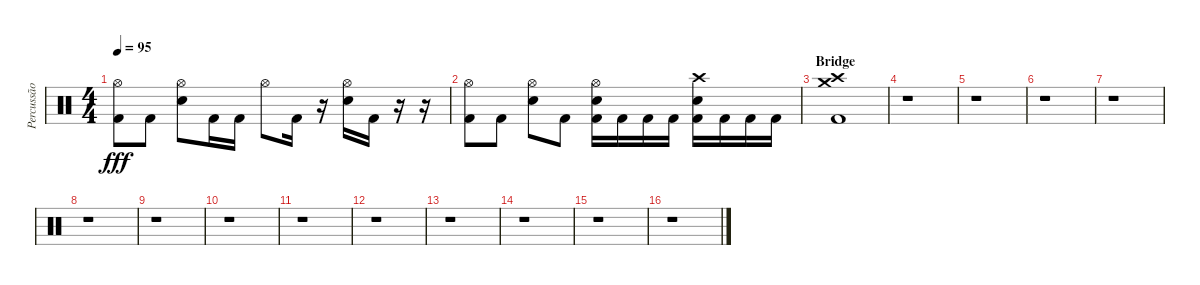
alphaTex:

\track ("Percussão" "Percussão") {instrument percussion}
\staff {score}
\articulation defaults
\ts (4 4)
\tempo 95
\clef neutral
\ks c
("Hi-Hat (open)" "Kick (hit) 2").8{dy fff} "Kick (hit) 2".8 ("Hi-Hat (open)" "Electric Snare (hit)").8 "Kick (hit) 2".16 "Kick (hit) 2".16 "Hi-Hat (open)".8 "Kick (hit) 2".16 r.16 ("Hi-Hat (open)" "Electric Snare (hit)").16 "Kick (hit) 2".16 r.16 r.16 |
("Hi-Hat (open)" "Kick (hit) 2").8 "Kick (hit) 2".8 ("Hi-Hat (open)" "Electric Snare (hit)").8 "Kick (hit) 2".8 ("Hi-Hat (open)" "Electric Snare (hit)" "Kick (hit) 2").16 "Kick (hit) 2".16 "Kick (hit) 2".16 "Kick (hit) 2".16 ("Crash high (hit)" "Electric Snare (hit)" "Kick (hit) 2").16 "Kick (hit) 2".16 "Kick (hit) 2".16 "Kick (hit) 2".16 |
\section ("" "Bridge")
("Crash medium (hit)" "Kick (hit) 2" "Crash high (hit)").1 |
r.1 |
r.1 |
r.1 |
r.1 |
r.1 |
r.1 |
r.1 |
r.1 |
r.1 |
r.1 |
r.1 |
r.1 |
r.1
